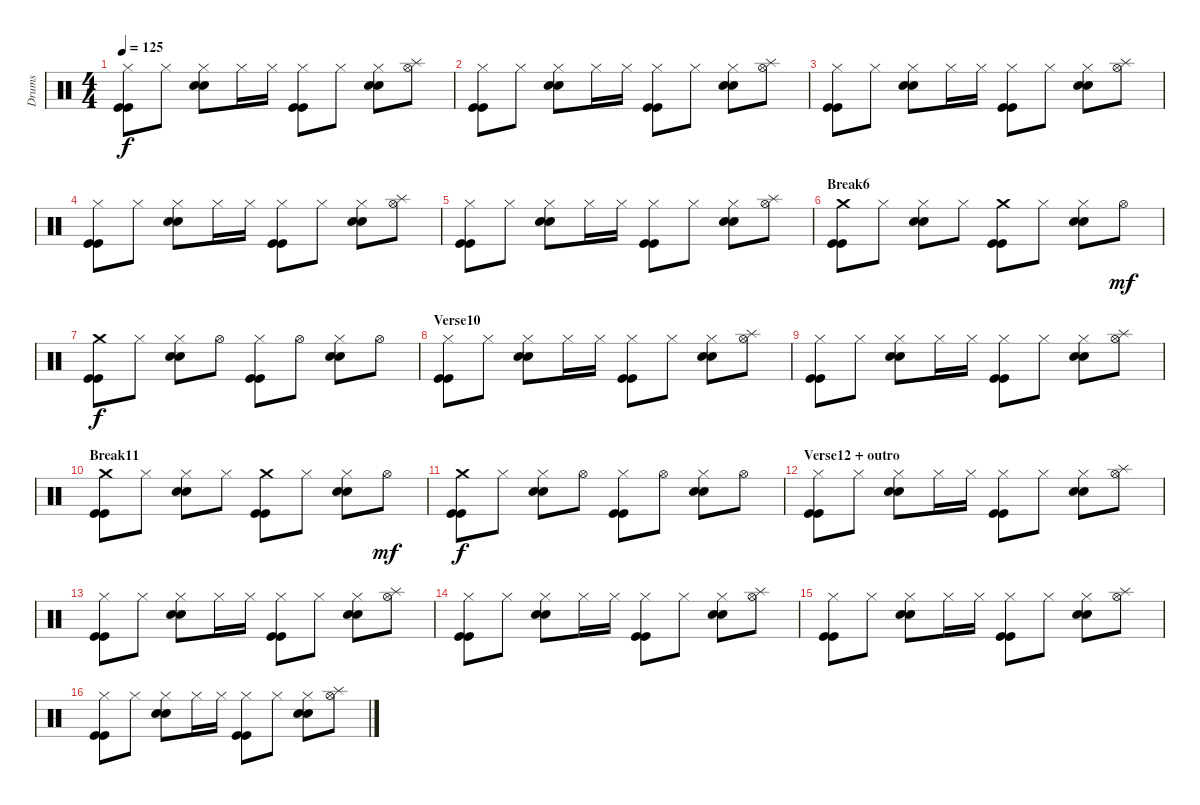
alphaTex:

\track ("Drums" "Drums") {instrument percussion}
\staff {score}
\articulation defaults
\ts (4 4)
\tempo 125
\clef neutral
\ks c
("Hi-Hat (closed)" "Kick (hit)" "Kick (hit)").8{dy f} "Hi-Hat (closed)".8 ("Hi-Hat (closed)" "Electric Snare (hit)" "Electric Snare (hit)").8 "Hi-Hat (closed)".16 "Hi-Hat (closed)".16 ("Hi-Hat (closed)" "Kick (hit)" "Kick (hit)").8 "Hi-Hat (closed)".8 ("Hi-Hat (closed)" "Electric Snare (hit)" "Electric Snare (hit)").8 ("Hi-Hat (open)" "Splash (hit)").8 |
("Hi-Hat (closed)" "Kick (hit)" "Kick (hit)").8 "Hi-Hat (closed)".8 ("Hi-Hat (closed)" "Electric Snare (hit)" "Electric Snare (hit)").8 "Hi-Hat (closed)".16 "Hi-Hat (closed)".16 ("Hi-Hat (closed)" "Kick (hit)" "Kick (hit)").8 "Hi-Hat (closed)".8 ("Hi-Hat (closed)" "Electric Snare (hit)" "Electric Snare (hit)").8 ("Hi-Hat (open)" "Splash (hit)").8 |
("Hi-Hat (closed)" "Kick (hit)" "Kick (hit)").8 "Hi-Hat (closed)".8 ("Hi-Hat (closed)" "Electric Snare (hit)" "Electric Snare (hit)").8 "Hi-Hat (closed)".16 "Hi-Hat (closed)".16 ("Hi-Hat (closed)" "Kick (hit)" "Kick (hit)").8 "Hi-Hat (closed)".8 ("Hi-Hat (closed)" "Electric Snare (hit)" "Electric Snare (hit)").8 ("Hi-Hat (open)" "Splash (hit)").8 |
("Hi-Hat (closed)" "Kick (hit)" "Kick (hit)").8 "Hi-Hat (closed)".8 ("Hi-Hat (closed)" "Electric Snare (hit)" "Electric Snare (hit)").8 "Hi-Hat (closed)".16 "Hi-Hat (closed)".16 ("Hi-Hat (closed)" "Kick (hit)" "Kick (hit)").8 "Hi-Hat (closed)".8 ("Hi-Hat (closed)" "Electric Snare (hit)" "Electric Snare (hit)").8 ("Hi-Hat (open)" "Splash (hit)").8 |
("Hi-Hat (closed)" "Kick (hit)" "Kick (hit)").8 "Hi-Hat (closed)".8 ("Hi-Hat (closed)" "Electric Snare (hit)" "Electric Snare (hit)").8 "Hi-Hat (closed)".16 "Hi-Hat (closed)".16 ("Hi-Hat (closed)" "Kick (hit)" "Kick (hit)").8 "Hi-Hat (closed)".8 ("Hi-Hat (closed)" "Electric Snare (hit)" "Electric Snare (hit)").8 ("Hi-Hat (open)" "Splash (hit)").8 |
\section ("" "Break6")
("Crash medium (hit)" "Kick (hit)" "Kick (hit)").8 "Hi-Hat (closed)".8 ("Hi-Hat (closed)" "Electric Snare (hit)" "Electric Snare (hit)").8 "Hi-Hat (closed)".8 ("Crash medium (hit)" "Kick (hit)" "Kick (hit)").8 "Hi-Hat (closed)".8 ("Hi-Hat (closed)" "Electric Snare (hit)" "Electric Snare (hit)").8 "Hi-Hat (open)".8{dy mf} |
("Crash medium (hit)" "Kick (hit)" "Kick (hit)").8{dy f} "Hi-Hat (closed)".8 ("Hi-Hat (closed)" "Electric Snare (hit)" "Electric Snare (hit)").8 "Hi-Hat (open)".8 ("Hi-Hat (closed)" "Kick (hit)" "Kick (hit)").8 "Hi-Hat (open)".8 ("Hi-Hat (closed)" "Electric Snare (hit)" "Electric Snare (hit)").8 "Hi-Hat (open)".8 |
\section ("" "Verse10")
("Hi-Hat (closed)" "Kick (hit)" "Kick (hit)").8 "Hi-Hat (closed)".8 ("Hi-Hat (closed)" "Electric Snare (hit)" "Electric Snare (hit)").8 "Hi-Hat (closed)".16 "Hi-Hat (closed)".16 ("Hi-Hat (closed)" "Kick (hit)" "Kick (hit)").8 "Hi-Hat (closed)".8 ("Hi-Hat (closed)" "Electric Snare (hit)" "Electric Snare (hit)").8 ("Hi-Hat (open)" "Splash (hit)").8 |
("Hi-Hat (closed)" "Kick (hit)" "Kick (hit)").8 "Hi-Hat (closed)".8 ("Hi-Hat (closed)" "Electric Snare (hit)" "Electric Snare (hit)").8 "Hi-Hat (closed)".16 "Hi-Hat (closed)".16 ("Hi-Hat (closed)" "Kick (hit)" "Kick (hit)").8 "Hi-Hat (closed)".8 ("Hi-Hat (closed)" "Electric Snare (hit)" "Electric Snare (hit)").8 ("Hi-Hat (open)" "Splash (hit)").8 |
\section ("" "Break11")
("Crash medium (hit)" "Kick (hit)" "Kick (hit)").8 "Hi-Hat (closed)".8 ("Hi-Hat (closed)" "Electric Snare (hit)" "Electric Snare (hit)").8 "Hi-Hat (closed)".8 ("Crash medium (hit)" "Kick (hit)" "Kick (hit)").8 "Hi-Hat (closed)".8 ("Hi-Hat (closed)" "Electric Snare (hit)" "Electric Snare (hit)").8 "Hi-Hat (open)".8{dy mf} |
("Crash medium (hit)" "Kick (hit)" "Kick (hit)").8{dy f} "Hi-Hat (closed)".8 ("Hi-Hat (closed)" "Electric Snare (hit)" "Electric Snare (hit)").8 "Hi-Hat (open)".8 ("Hi-Hat (closed)" "Kick (hit)" "Kick (hit)").8 "Hi-Hat (open)".8 ("Hi-Hat (closed)" "Electric Snare (hit)" "Electric Snare (hit)").8 "Hi-Hat (open)".8 |
\section ("" "Verse12 + outro")
("Hi-Hat (closed)" "Kick (hit)" "Kick (hit)").8 "Hi-Hat (closed)".8 ("Hi-Hat (closed)" "Electric Snare (hit)" "Electric Snare (hit)").8 "Hi-Hat (closed)".16 "Hi-Hat (closed)".16 ("Hi-Hat (closed)" "Kick (hit)" "Kick (hit)").8 "Hi-Hat (closed)".8 ("Hi-Hat (closed)" "Electric Snare (hit)" "Electric Snare (hit)").8 ("Hi-Hat (open)" "Splash (hit)").8 |
("Hi-Hat (closed)" "Kick (hit)" "Kick (hit)").8 "Hi-Hat (closed)".8 ("Hi-Hat (closed)" "Electric Snare (hit)" "Electric Snare (hit)").8 "Hi-Hat (closed)".16 "Hi-Hat (closed)".16 ("Hi-Hat (closed)" "Kick (hit)" "Kick (hit)").8 "Hi-Hat (closed)".8 ("Hi-Hat (closed)" "Electric Snare (hit)" "Electric Snare (hit)").8 ("Hi-Hat (open)" "Splash (hit)").8 |
("Hi-Hat (closed)" "Kick (hit)" "Kick (hit)").8 "Hi-Hat (closed)".8 ("Hi-Hat (closed)" "Electric Snare (hit)" "Electric Snare (hit)").8 "Hi-Hat (closed)".16 "Hi-Hat (closed)".16 ("Hi-Hat (closed)" "Kick (hit)" "Kick (hit)").8 "Hi-Hat (closed)".8 ("Hi-Hat (closed)" "Electric Snare (hit)" "Electric Snare (hit)").8 ("Hi-Hat (open)" "Splash (hit)").8 |
("Hi-Hat (closed)" "Kick (hit)" "Kick (hit)").8 "Hi-Hat (closed)".8 ("Hi-Hat (closed)" "Electric Snare (hit)" "Electric Snare (hit)").8 "Hi-Hat (closed)".16 "Hi-Hat (closed)".16 ("Hi-Hat (closed)" "Kick (hit)" "Kick (hit)").8 "Hi-Hat (closed)".8 ("Hi-Hat (closed)" "Electric Snare (hit)" "Electric Snare (hit)").8 ("Hi-Hat (open)" "Splash (hit)").8 |
("Hi-Hat (closed)" "Kick (hit)" "Kick (hit)").8 "Hi-Hat (closed)".8 ("Hi-Hat (closed)" "Electric Snare (hit)" "Electric Snare (hit)").8 "Hi-Hat (closed)".16 "Hi-Hat (closed)".16 ("Hi-Hat (closed)" "Kick (hit)" "Kick (hit)").8 "Hi-Hat (closed)".8 ("Hi-Hat (closed)" "Electric Snare (hit)" "Electric Snare (hit)").8 ("Hi-Hat (open)" "Splash (hit)").8
